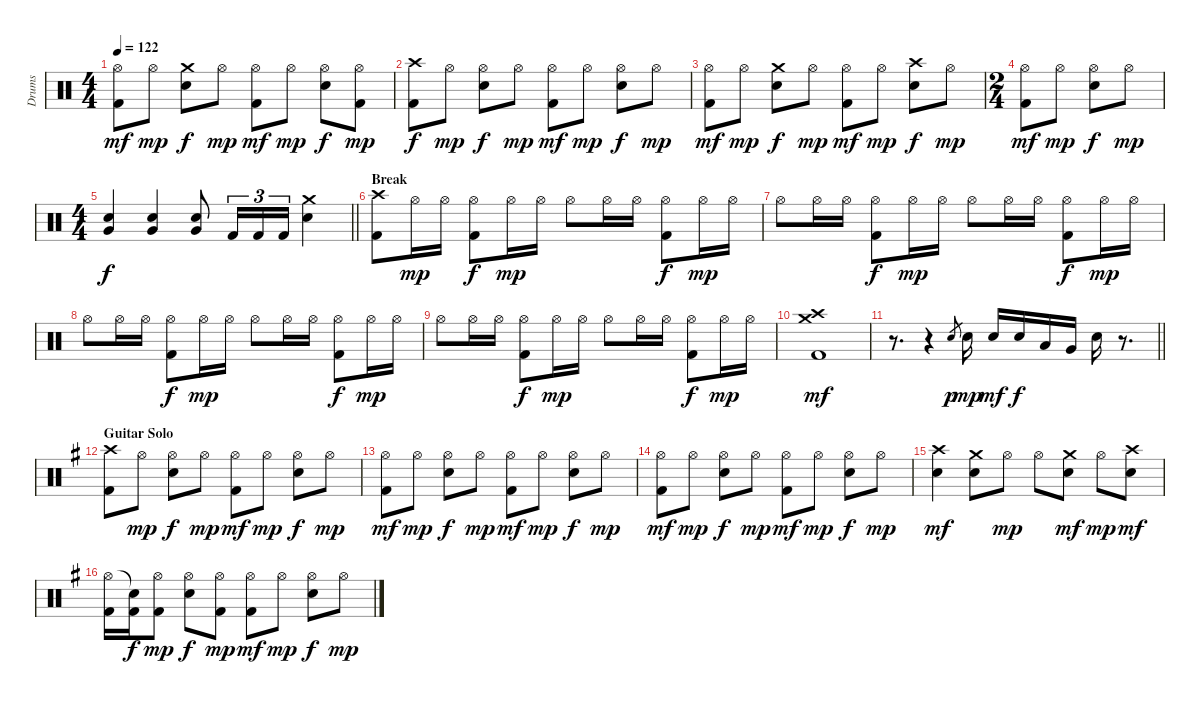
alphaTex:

\track ("Drums" "Drums") {instrument percussion}
\staff {score}
\articulation defaults
\ts (4 4)
\tempo 122
\clef neutral
\ks c
("Hi-Hat (open)" "Kick (hit) 2").8{dy mf} "Hi-Hat (open)".8{dy mp} ("Crash medium (hit)" "Electric Snare (hit)").8{dy f} "Hi-Hat (open)".8{dy mp} ("Hi-Hat (open)" "Kick (hit) 2").8{dy mf} "Hi-Hat (open)".8{dy mp} ("Hi-Hat (open)" "Electric Snare (hit)").8{dy f} ("Hi-Hat (open)" "Kick (hit) 2").8{dy mp} |
("Crash high (hit)" "Kick (hit) 2").8{dy f} "Hi-Hat (open)".8{dy mp} ("Hi-Hat (open)" "Electric Snare (hit)").8{dy f} "Hi-Hat (open)".8{dy mp} ("Hi-Hat (open)" "Kick (hit) 2").8{dy mf} "Hi-Hat (open)".8{dy mp} ("Hi-Hat (open)" "Electric Snare (hit)").8{dy f} "Hi-Hat (open)".8{dy mp} |
("Hi-Hat (open)" "Kick (hit) 2").8{dy mf} "Hi-Hat (open)".8{dy mp} ("Crash medium (hit)" "Electric Snare (hit)").8{dy f} "Hi-Hat (open)".8{dy mp} ("Hi-Hat (open)" "Kick (hit) 2").8{dy mf} "Hi-Hat (open)".8{dy mp} ("Crash high (hit)" "Electric Snare (hit)").8{dy f} "Hi-Hat (open)".8{dy mp} |
\ts (2 4)
("Hi-Hat (open)" "Kick (hit) 2").8{dy mf} "Hi-Hat (open)".8{dy mp} ("Hi-Hat (open)" "Electric Snare (hit)").8{dy f} "Hi-Hat (open)".8{dy mp} |
\ts (4 4)
\barLineRight lightlight
("Very Low Tom (hit)" "Electric Snare (hit)").4{dy f} ("Very Low Tom (hit)" "Electric Snare (hit)").4 ("Very Low Tom (hit)" "Electric Snare (hit)").8 "Kick (hit) 2".16{tu (3 2)} "Kick (hit) 2".16{tu (3 2)} "Kick (hit) 2".16{tu (3 2)} ("Crash medium (hit)" "Electric Snare (hit)").4 |
\section ("" "Break")
("Crash high (hit)" "Kick (hit) 2").8 "Hi-Hat (open)".16{dy mp} "Hi-Hat (open)".16 ("Hi-Hat (open)" "Kick (hit) 2").8{dy f} "Hi-Hat (open)".16{dy mp} "Hi-Hat (open)".16 "Hi-Hat (open)".8 "Hi-Hat (open)".16 "Hi-Hat (open)".16 ("Hi-Hat (open)" "Kick (hit) 2").8{dy f} "Hi-Hat (open)".16{dy mp} "Hi-Hat (open)".16 |
"Hi-Hat (open)".8 "Hi-Hat (open)".16 "Hi-Hat (open)".16 ("Hi-Hat (open)" "Kick (hit) 2").8{dy f} "Hi-Hat (open)".16{dy mp} "Hi-Hat (open)".16 "Hi-Hat (open)".8 "Hi-Hat (open)".16 "Hi-Hat (open)".16 ("Hi-Hat (open)" "Kick (hit) 2").8{dy f} "Hi-Hat (open)".16{dy mp} "Hi-Hat (open)".16 |
"Hi-Hat (open)".8 "Hi-Hat (open)".16 "Hi-Hat (open)".16 ("Hi-Hat (open)" "Kick (hit) 2").8{dy f} "Hi-Hat (open)".16{dy mp} "Hi-Hat (open)".16 "Hi-Hat (open)".8 "Hi-Hat (open)".16 "Hi-Hat (open)".16 ("Hi-Hat (open)" "Kick (hit) 2").8{dy f} "Hi-Hat (open)".16{dy mp} "Hi-Hat (open)".16 |
"Hi-Hat (open)".8 "Hi-Hat (open)".16 "Hi-Hat (open)".16 ("Hi-Hat (open)" "Kick (hit) 2").8{dy f} "Hi-Hat (open)".16{dy mp} "Hi-Hat (open)".16 "Hi-Hat (open)".8 "Hi-Hat (open)".16 "Hi-Hat (open)".16 ("Hi-Hat (open)" "Kick (hit) 2").8{dy f} "Hi-Hat (open)".16{dy mp} "Hi-Hat (open)".16 |
("Crash medium (hit)" "Crash high (hit)" "Kick (hit) 2").1{dy mf} |
\barLineRight lightlight
r.8{d} r.4 "Electric Snare (hit)".8{gr dy p} "Electric Snare (hit)".16{dy mp} "Electric Snare (hit)".16{dy mf} "Electric Snare (hit)".16{dy f} "Low Tom (hit)".16 "Very Low Tom (hit)".16 "Electric Snare (hit)".16 r.8{d} |
\section ("" "Guitar Solo")
\ks g
("Crash high (hit)" "Kick (hit) 2").8 "Hi-Hat (open)".8{dy mp} ("Hi-Hat (open)" "Electric Snare (hit)").8{dy f} "Hi-Hat (open)".8{dy mp} ("Hi-Hat (open)" "Kick (hit) 2").8{dy mf} "Hi-Hat (open)".8{dy mp} ("Hi-Hat (open)" "Electric Snare (hit)").8{dy f} "Hi-Hat (open)".8{dy mp} |
("Hi-Hat (open)" "Kick (hit) 2").8{dy mf} "Hi-Hat (open)".8{dy mp} ("Hi-Hat (open)" "Electric Snare (hit)").8{dy f} "Hi-Hat (open)".8{dy mp} ("Hi-Hat (open)" "Kick (hit) 2").8{dy mf} "Hi-Hat (open)".8{dy mp} ("Hi-Hat (open)" "Electric Snare (hit)").8{dy f} "Hi-Hat (open)".8{dy mp} |
("Hi-Hat (open)" "Kick (hit) 2").8{dy mf} "Hi-Hat (open)".8{dy mp} ("Hi-Hat (open)" "Electric Snare (hit)").8{dy f} "Hi-Hat (open)".8{dy mp} ("Hi-Hat (open)" "Kick (hit) 2").8{dy mf} "Hi-Hat (open)".8{dy mp} ("Hi-Hat (open)" "Electric Snare (hit)").8{dy f} "Hi-Hat (open)".8{dy mp} |
("Crash high (hit)" "Electric Snare (hit)").4{dy mf} ("Crash medium (hit)" "Electric Snare (hit)").8 "Hi-Hat (open)".8{dy mp} "Hi-Hat (open)".8 ("Crash medium (hit)" "Electric Snare (hit)").8{dy mf} "Hi-Hat (open)".8{dy mp} ("Crash high (hit)" "Electric Snare (hit)").8{dy mf} |
("Hi-Hat (open)" "Kick (hit) 2").16 ("Snare (hit)"{t} "Kick (hit) 2").16{dy f} ("Hi-Hat (open)" "Kick (hit) 2").8{dy mp} ("Hi-Hat (open)" "Electric Snare (hit)").8{dy f} ("Hi-Hat (open)" "Kick (hit) 2").8{dy mp} ("Hi-Hat (open)" "Kick (hit) 2").8{dy mf} "Hi-Hat (open)".8{dy mp} ("Hi-Hat (open)" "Electric Snare (hit)").8{dy f} "Hi-Hat (open)".8{dy mp}
